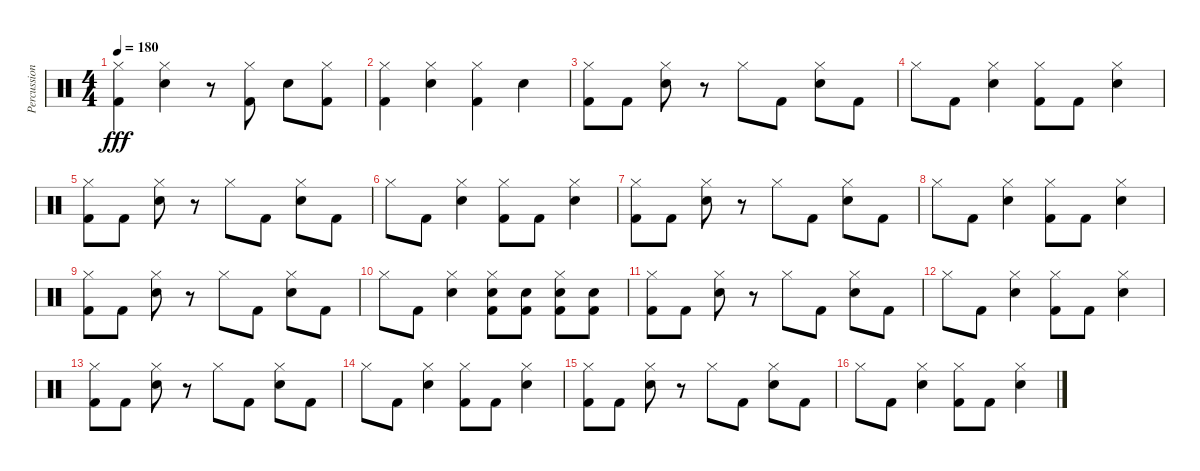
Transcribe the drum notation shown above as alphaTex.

\track ("Percussion" "Percussion") {instrument percussion}
\staff {score}
\articulation defaults
\ts (4 4)
\tempo 180
\clef neutral
\ks c
("Hi-Hat (closed)" "Kick (hit) 2").4{dy fff} ("Hi-Hat (closed)" "Snare (hit) 2").4 r.8 ("Hi-Hat (closed)" "Kick (hit) 2").8 "Snare (hit) 2".8 ("Hi-Hat (closed)" "Kick (hit) 2").8 |
("Hi-Hat (closed)" "Kick (hit) 2").4 ("Hi-Hat (closed)" "Snare (hit) 2").4 ("Hi-Hat (closed)" "Kick (hit) 2").4 "Snare (hit) 2".4 |
("Hi-Hat (closed)" "Kick (hit) 2").8 "Kick (hit) 2".8 ("Hi-Hat (closed)" "Snare (hit) 2").8 r.8 "Hi-Hat (closed)".8 "Kick (hit) 2".8 ("Hi-Hat (closed)" "Snare (hit) 2").8 "Kick (hit) 2".8 |
"Hi-Hat (closed)".8 "Kick (hit) 2".8 ("Hi-Hat (closed)" "Snare (hit) 2").4 ("Hi-Hat (closed)" "Kick (hit) 2").8 "Kick (hit) 2".8 ("Hi-Hat (closed)" "Snare (hit) 2").4 |
("Hi-Hat (closed)" "Kick (hit) 2").8 "Kick (hit) 2".8 ("Hi-Hat (closed)" "Snare (hit) 2").8 r.8 "Hi-Hat (closed)".8 "Kick (hit) 2".8 ("Hi-Hat (closed)" "Snare (hit) 2").8 "Kick (hit) 2".8 |
"Hi-Hat (closed)".8 "Kick (hit) 2".8 ("Hi-Hat (closed)" "Snare (hit) 2").4 ("Hi-Hat (closed)" "Kick (hit) 2").8 "Kick (hit) 2".8 ("Hi-Hat (closed)" "Snare (hit) 2").4 |
("Hi-Hat (closed)" "Kick (hit) 2").8 "Kick (hit) 2".8 ("Hi-Hat (closed)" "Snare (hit) 2").8 r.8 "Hi-Hat (closed)".8 "Kick (hit) 2".8 ("Hi-Hat (closed)" "Snare (hit) 2").8 "Kick (hit) 2".8 |
"Hi-Hat (closed)".8 "Kick (hit) 2".8 ("Hi-Hat (closed)" "Snare (hit) 2").4 ("Hi-Hat (closed)" "Kick (hit) 2").8 "Kick (hit) 2".8 ("Hi-Hat (closed)" "Snare (hit) 2").4 |
("Hi-Hat (closed)" "Kick (hit) 2").8 "Kick (hit) 2".8 ("Hi-Hat (closed)" "Snare (hit) 2").8 r.8 "Hi-Hat (closed)".8 "Kick (hit) 2".8 ("Hi-Hat (closed)" "Snare (hit) 2").8 "Kick (hit) 2".8 |
"Hi-Hat (closed)".8 "Kick (hit) 2".8 ("Hi-Hat (closed)" "Snare (hit) 2").4 ("Hi-Hat (closed)" "Snare (hit) 2" "Kick (hit) 2").8 ("Snare (hit) 2" "Kick (hit) 2").8 ("Hi-Hat (closed)" "Snare (hit) 2" "Kick (hit) 2").8 ("Snare (hit) 2" "Kick (hit) 2").8 |
("Hi-Hat (closed)" "Kick (hit) 2").8 "Kick (hit) 2".8 ("Hi-Hat (closed)" "Snare (hit) 2").8 r.8 "Hi-Hat (closed)".8 "Kick (hit) 2".8 ("Hi-Hat (closed)" "Snare (hit) 2").8 "Kick (hit) 2".8 |
"Hi-Hat (closed)".8 "Kick (hit) 2".8 ("Hi-Hat (closed)" "Snare (hit) 2").4 ("Hi-Hat (closed)" "Kick (hit) 2").8 "Kick (hit) 2".8 ("Hi-Hat (closed)" "Snare (hit) 2").4 |
("Hi-Hat (closed)" "Kick (hit) 2").8 "Kick (hit) 2".8 ("Hi-Hat (closed)" "Snare (hit) 2").8 r.8 "Hi-Hat (closed)".8 "Kick (hit) 2".8 ("Hi-Hat (closed)" "Snare (hit) 2").8 "Kick (hit) 2".8 |
"Hi-Hat (closed)".8 "Kick (hit) 2".8 ("Hi-Hat (closed)" "Snare (hit) 2").4 ("Hi-Hat (closed)" "Kick (hit) 2").8 "Kick (hit) 2".8 ("Hi-Hat (closed)" "Snare (hit) 2").4 |
("Hi-Hat (closed)" "Kick (hit) 2").8 "Kick (hit) 2".8 ("Hi-Hat (closed)" "Snare (hit) 2").8 r.8 "Hi-Hat (closed)".8 "Kick (hit) 2".8 ("Hi-Hat (closed)" "Snare (hit) 2").8 "Kick (hit) 2".8 |
"Hi-Hat (closed)".8 "Kick (hit) 2".8 ("Hi-Hat (closed)" "Snare (hit) 2").4 ("Hi-Hat (closed)" "Kick (hit) 2").8 "Kick (hit) 2".8 ("Hi-Hat (closed)" "Snare (hit) 2").4
